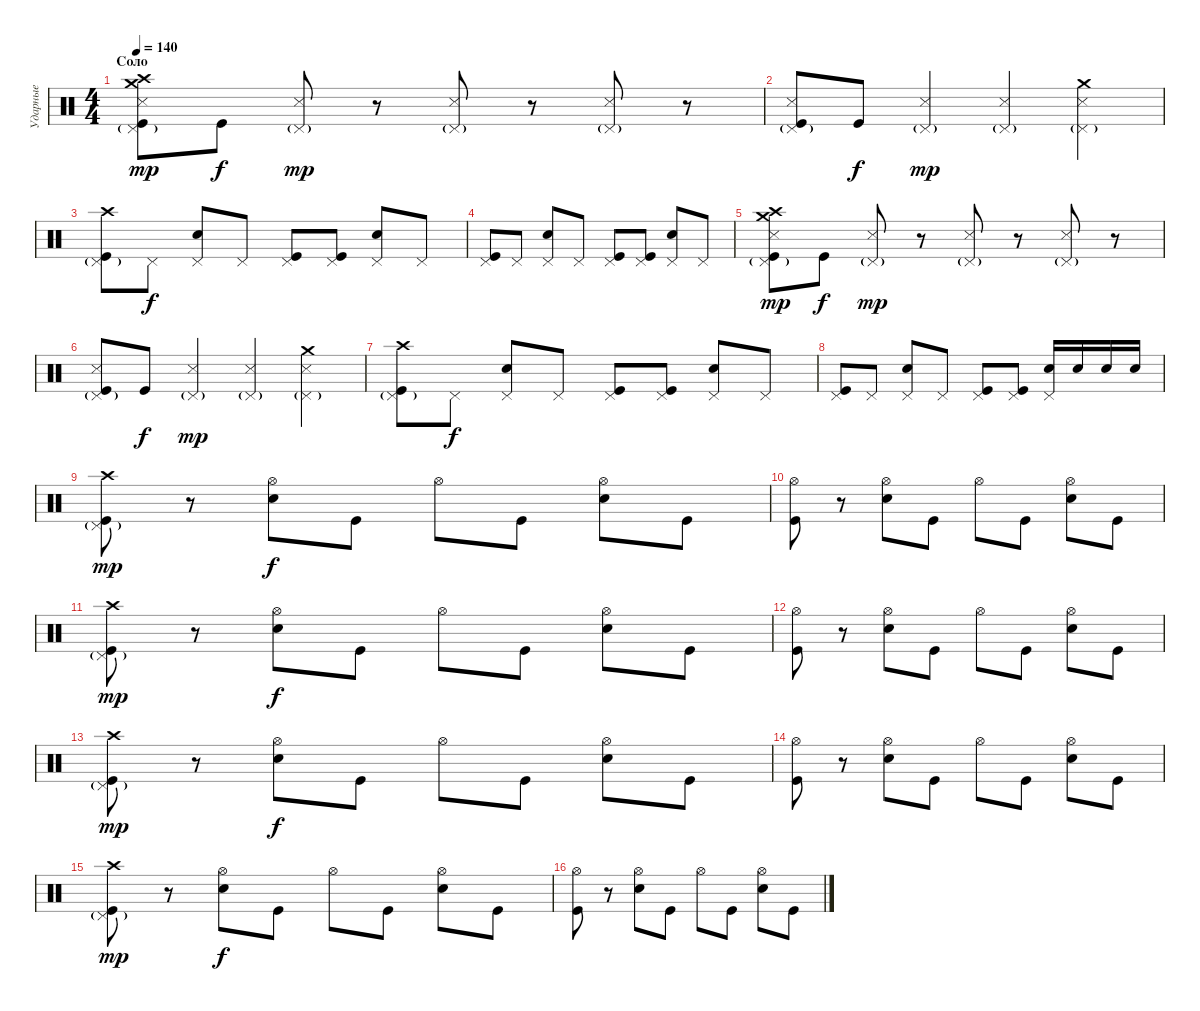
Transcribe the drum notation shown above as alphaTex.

\track ("Ударные" "Ударные") {instrument percussion}
\staff {score}
\articulation defaults
\ts (4 4)
\section ("" "Соло")
\tempo 140
\clef neutral
\ks c
("Crash high (hit)" "Crash medium (hit)" "Pedal Hi-Hat (hit)"{g} "Snare (side stick) 3" "Kick (hit)").8{dy mp} "Kick (hit)".8{dy f} ("Pedal Hi-Hat (hit)"{g} "Snare (side stick) 3").8{dy mp} r.8 ("Pedal Hi-Hat (hit)"{g} "Snare (side stick) 3").8 r.8 ("Pedal Hi-Hat (hit)"{g} "Snare (side stick) 3").8 r.8 |
("Pedal Hi-Hat (hit)"{g} "Kick (hit)" "Snare (side stick) 3").8 "Kick (hit)".8{dy f} ("Pedal Hi-Hat (hit)"{g} "Snare (side stick) 3").4{dy mp} ("Pedal Hi-Hat (hit)"{g} "Snare (side stick) 3").4 ("Crash medium (hit)" "Pedal Hi-Hat (hit)"{g} "Snare (side stick) 3").4 |
("Crash high (hit)" "Pedal Hi-Hat (hit)"{g} "Kick (hit)").8 "Pedal Hi-Hat (hit)".8{dy f} ("Pedal Hi-Hat (hit)" "Electric Snare (hit)").8 "Pedal Hi-Hat (hit)".8 ("Pedal Hi-Hat (hit)" "Kick (hit)").8 ("Pedal Hi-Hat (hit)" "Kick (hit)").8 ("Pedal Hi-Hat (hit)" "Electric Snare (hit)").8 "Pedal Hi-Hat (hit)".8 |
("Pedal Hi-Hat (hit)" "Kick (hit)").8 "Pedal Hi-Hat (hit)".8 ("Pedal Hi-Hat (hit)" "Electric Snare (hit)").8 "Pedal Hi-Hat (hit)".8 ("Pedal Hi-Hat (hit)" "Kick (hit)").8 ("Pedal Hi-Hat (hit)" "Kick (hit)").8 ("Pedal Hi-Hat (hit)" "Electric Snare (hit)").8 "Pedal Hi-Hat (hit)".8 |
("Crash high (hit)" "Crash medium (hit)" "Pedal Hi-Hat (hit)"{g} "Snare (side stick) 3" "Kick (hit)").8{dy mp} "Kick (hit)".8{dy f} ("Pedal Hi-Hat (hit)"{g} "Snare (side stick) 3").8{dy mp} r.8 ("Pedal Hi-Hat (hit)"{g} "Snare (side stick) 3").8 r.8 ("Pedal Hi-Hat (hit)"{g} "Snare (side stick) 3").8 r.8 |
("Pedal Hi-Hat (hit)"{g} "Kick (hit)" "Snare (side stick) 3").8 "Kick (hit)".8{dy f} ("Pedal Hi-Hat (hit)"{g} "Snare (side stick) 3").4{dy mp} ("Pedal Hi-Hat (hit)"{g} "Snare (side stick) 3").4 ("Crash medium (hit)" "Pedal Hi-Hat (hit)"{g} "Snare (side stick) 3").4 |
("Crash high (hit)" "Pedal Hi-Hat (hit)"{g} "Kick (hit)").8 "Pedal Hi-Hat (hit)".8{dy f} ("Pedal Hi-Hat (hit)" "Electric Snare (hit)").8 "Pedal Hi-Hat (hit)".8 ("Pedal Hi-Hat (hit)" "Kick (hit)").8 ("Pedal Hi-Hat (hit)" "Kick (hit)").8 ("Pedal Hi-Hat (hit)" "Electric Snare (hit)").8 "Pedal Hi-Hat (hit)".8 |
("Pedal Hi-Hat (hit)" "Kick (hit)").8 "Pedal Hi-Hat (hit)".8 ("Pedal Hi-Hat (hit)" "Electric Snare (hit)").8 "Pedal Hi-Hat (hit)".8 ("Pedal Hi-Hat (hit)" "Kick (hit)").8 ("Pedal Hi-Hat (hit)" "Kick (hit)").8 ("Pedal Hi-Hat (hit)" "Electric Snare (hit)").16 "Electric Snare (hit)".16 "Electric Snare (hit)".16 "Electric Snare (hit)".16 |
("Crash high (hit)" "Pedal Hi-Hat (hit)"{g} "Kick (hit)").8{dy mp} r.8 ("Hi-Hat (open)" "Electric Snare (hit)").8{dy f} "Kick (hit)".8 "Hi-Hat (open)".8 "Kick (hit)".8 ("Hi-Hat (open)" "Electric Snare (hit)").8 "Kick (hit)".8 |
("Hi-Hat (open)" "Kick (hit)").8 r.8 ("Hi-Hat (open)" "Electric Snare (hit)").8 "Kick (hit)".8 "Hi-Hat (open)".8 "Kick (hit)".8 ("Hi-Hat (open)" "Electric Snare (hit)").8 "Kick (hit)".8 |
("Crash high (hit)" "Pedal Hi-Hat (hit)"{g} "Kick (hit)").8{dy mp} r.8 ("Hi-Hat (open)" "Electric Snare (hit)").8{dy f} "Kick (hit)".8 "Hi-Hat (open)".8 "Kick (hit)".8 ("Hi-Hat (open)" "Electric Snare (hit)").8 "Kick (hit)".8 |
("Hi-Hat (open)" "Kick (hit)").8 r.8 ("Hi-Hat (open)" "Electric Snare (hit)").8 "Kick (hit)".8 "Hi-Hat (open)".8 "Kick (hit)".8 ("Hi-Hat (open)" "Electric Snare (hit)").8 "Kick (hit)".8 |
("Crash high (hit)" "Pedal Hi-Hat (hit)"{g} "Kick (hit)").8{dy mp} r.8 ("Hi-Hat (open)" "Electric Snare (hit)").8{dy f} "Kick (hit)".8 "Hi-Hat (open)".8 "Kick (hit)".8 ("Hi-Hat (open)" "Electric Snare (hit)").8 "Kick (hit)".8 |
("Hi-Hat (open)" "Kick (hit)").8 r.8 ("Hi-Hat (open)" "Electric Snare (hit)").8 "Kick (hit)".8 "Hi-Hat (open)".8 "Kick (hit)".8 ("Hi-Hat (open)" "Electric Snare (hit)").8 "Kick (hit)".8 |
("Crash high (hit)" "Pedal Hi-Hat (hit)"{g} "Kick (hit)").8{dy mp} r.8 ("Hi-Hat (open)" "Electric Snare (hit)").8{dy f} "Kick (hit)".8 "Hi-Hat (open)".8 "Kick (hit)".8 ("Hi-Hat (open)" "Electric Snare (hit)").8 "Kick (hit)".8 |
("Hi-Hat (open)" "Kick (hit)").8 r.8 ("Hi-Hat (open)" "Electric Snare (hit)").8 "Kick (hit)".8 "Hi-Hat (open)".8 "Kick (hit)".8 ("Hi-Hat (open)" "Electric Snare (hit)").8 "Kick (hit)".8
